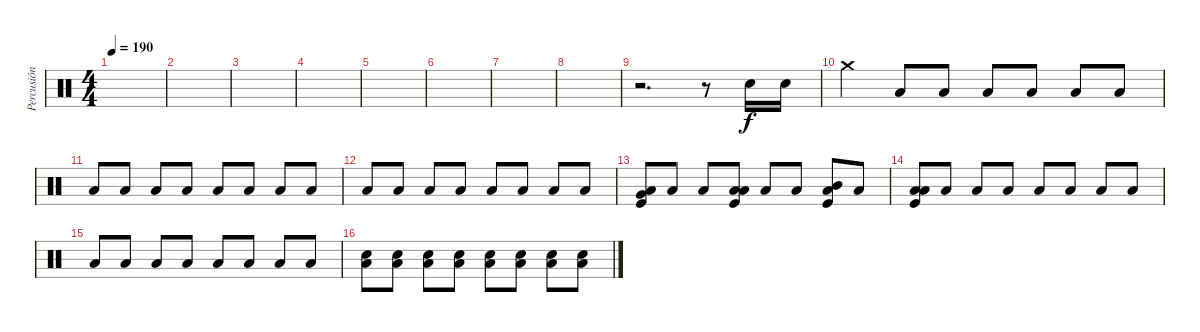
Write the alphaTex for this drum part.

\track ("Percusión" "Percusión") {instrument percussion}
\staff {score}
\articulation defaults
\ts (4 4)
\tempo 190
\clef neutral
\ks c
|
|
|
|
|
|
|
|
r.2{d} r.8 "Electric Snare (hit)".16 "Electric Snare (hit)".16 |
"Crash medium (hit)".4{volume 10} "Low Floor Tom (hit)".8 "Low Floor Tom (hit)".8 "Low Floor Tom (hit)".8 "Low Floor Tom (hit)".8 "Low Floor Tom (hit)".8 "Low Floor Tom (hit)".8 |
"Low Floor Tom (hit)".8 "Low Floor Tom (hit)".8 "Low Floor Tom (hit)".8 "Low Floor Tom (hit)".8 "Low Floor Tom (hit)".8 "Low Floor Tom (hit)".8 "Low Floor Tom (hit)".8 "Low Floor Tom (hit)".8 |
"Low Floor Tom (hit)".8 "Low Floor Tom (hit)".8 "Low Floor Tom (hit)".8 "Low Floor Tom (hit)".8 "Low Floor Tom (hit)".8 "Low Floor Tom (hit)".8 "Low Floor Tom (hit)".8 "Low Floor Tom (hit)".8 |
("Very Low Tom (hit)" "Low Floor Tom (hit)" "Kick (hit)").8 "Low Floor Tom (hit)".8 "Low Floor Tom (hit)".8 ("Low Tom (hit)" "Low Floor Tom (hit)" "Kick (hit)").8 "Low Floor Tom (hit)".8 "Low Floor Tom (hit)".8 ("Mid Tom (hit)" "Low Floor Tom (hit)" "Kick (hit)").8 "Low Floor Tom (hit)".8 |
("Low Tom (hit)" "Low Floor Tom (hit)" "Kick (hit)").8 "Low Floor Tom (hit)".8 "Low Floor Tom (hit)".8 "Low Floor Tom (hit)".8 "Low Floor Tom (hit)".8 "Low Floor Tom (hit)".8 "Low Floor Tom (hit)".8 "Low Floor Tom (hit)".8 |
"Low Floor Tom (hit)".8 "Low Floor Tom (hit)".8 "Low Floor Tom (hit)".8 "Low Floor Tom (hit)".8 "Low Floor Tom (hit)".8 "Low Floor Tom (hit)".8 "Low Floor Tom (hit)".8 "Low Floor Tom (hit)".8 |
("Electric Snare (hit)" "Low Floor Tom (hit)").8{volume 8} ("Electric Snare (hit)" "Low Floor Tom (hit)").8{volume 9} ("Electric Snare (hit)" "Low Floor Tom (hit)").8{volume 10} ("Electric Snare (hit)" "Low Floor Tom (hit)").8{volume 11} ("Electric Snare (hit)" "Low Floor Tom (hit)").8{volume 12} ("Electric Snare (hit)" "Low Floor Tom (hit)").8{volume 13} ("Electric Snare (hit)" "Low Floor Tom (hit)").8{volume 14} ("Electric Snare (hit)" "Low Floor Tom (hit)").8{volume 15}
